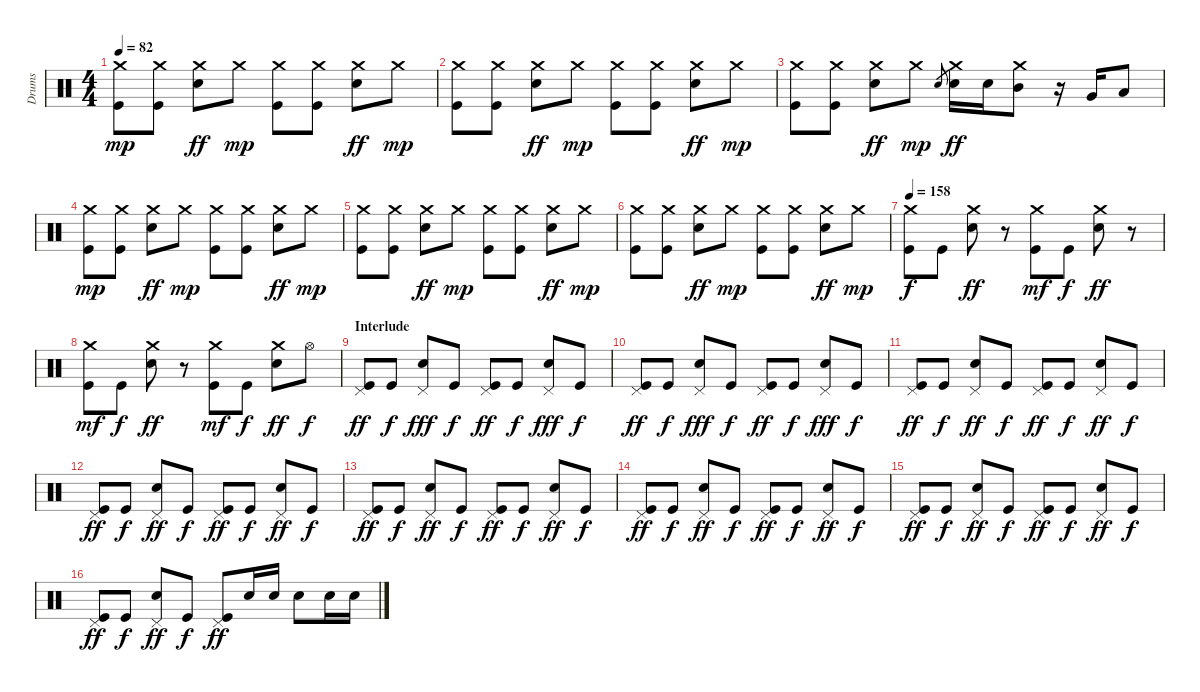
\track ("Drums" "Drums") {instrument percussion}
\staff {score}
\articulation defaults
\ts (4 4)
\tempo 82
\clef neutral
\ks c
("Crash medium (hit)" "Kick (hit)").8{dy mp} ("Crash medium (hit)" "Kick (hit)").8 ("Crash medium (hit)" "Electric Snare (hit)").8{dy ff} "Crash medium (hit)".8{dy mp} ("Crash medium (hit)" "Kick (hit)").8 ("Crash medium (hit)" "Kick (hit)").8 ("Crash medium (hit)" "Electric Snare (hit)").8{dy ff} "Crash medium (hit)".8{dy mp} |
("Crash medium (hit)" "Kick (hit)").8 ("Crash medium (hit)" "Kick (hit)").8 ("Crash medium (hit)" "Electric Snare (hit)").8{dy ff} "Crash medium (hit)".8{dy mp} ("Crash medium (hit)" "Kick (hit)").8 ("Crash medium (hit)" "Kick (hit)").8 ("Crash medium (hit)" "Electric Snare (hit)").8{dy ff} "Crash medium (hit)".8{dy mp} |
("Crash medium (hit)" "Kick (hit)").8 ("Crash medium (hit)" "Kick (hit)").8 ("Crash medium (hit)" "Electric Snare (hit)").8{dy ff} "Crash medium (hit)".8{dy mp} "Electric Snare (hit)".8{gr} ("Crash medium (hit)" "Electric Snare (hit)").16{dy ff} "Electric Snare (hit)".16 ("Crash medium (hit)" "Mid Tom (hit)").8 r.16 "Very Low Tom (hit)".16 "Low Floor Tom (hit)".8 |
("Crash medium (hit)" "Kick (hit)").8{dy mp} ("Crash medium (hit)" "Kick (hit)").8 ("Crash medium (hit)" "Electric Snare (hit)").8{dy ff} "Crash medium (hit)".8{dy mp} ("Crash medium (hit)" "Kick (hit)").8 ("Crash medium (hit)" "Kick (hit)").8 ("Crash medium (hit)" "Electric Snare (hit)").8{dy ff} "Crash medium (hit)".8{dy mp} |
("Crash medium (hit)" "Kick (hit)").8 ("Crash medium (hit)" "Kick (hit)").8 ("Crash medium (hit)" "Electric Snare (hit)").8{dy ff} "Crash medium (hit)".8{dy mp} ("Crash medium (hit)" "Kick (hit)").8 ("Crash medium (hit)" "Kick (hit)").8 ("Crash medium (hit)" "Electric Snare (hit)").8{dy ff} "Crash medium (hit)".8{dy mp} |
("Crash medium (hit)" "Kick (hit)").8 ("Crash medium (hit)" "Kick (hit)").8 ("Crash medium (hit)" "Electric Snare (hit)").8{dy ff} "Crash medium (hit)".8{dy mp} ("Crash medium (hit)" "Kick (hit)").8 ("Crash medium (hit)" "Kick (hit)").8 ("Crash medium (hit)" "Electric Snare (hit)").8{dy ff} "Crash medium (hit)".8{dy mp} |
\tempo 158
("Crash medium (hit)" "Kick (hit)").8{dy f} "Kick (hit)".8 ("Crash medium (hit)" "Electric Snare (hit)").8{dy ff} r.8 ("Crash medium (hit)" "Kick (hit)").8{dy mf} "Kick (hit)".8{dy f} ("Crash medium (hit)" "Electric Snare (hit)").8{dy ff} r.8 |
("Crash medium (hit)" "Kick (hit)").8{dy mf} "Kick (hit)".8{dy f} ("Crash medium (hit)" "Electric Snare (hit)").8{dy ff} r.8 ("Crash medium (hit)" "Kick (hit)").8{dy mf} "Kick (hit)".8{dy f} ("Crash medium (hit)" "Electric Snare (hit)").8{dy ff} "Hi-Hat (open)".8{dy f} |
\section ("" "Interlude")
("Pedal Hi-Hat (hit)" "Kick (hit)").8{dy ff} "Kick (hit)".8{dy f} ("Pedal Hi-Hat (hit)" "Electric Snare (hit)").8{dy fff} "Kick (hit)".8{dy f} ("Pedal Hi-Hat (hit)" "Kick (hit)").8{dy ff} "Kick (hit)".8{dy f} ("Pedal Hi-Hat (hit)" "Electric Snare (hit)").8{dy fff} "Kick (hit)".8{dy f} |
("Pedal Hi-Hat (hit)" "Kick (hit)").8{dy ff} "Kick (hit)".8{dy f} ("Pedal Hi-Hat (hit)" "Electric Snare (hit)").8{dy fff} "Kick (hit)".8{dy f} ("Pedal Hi-Hat (hit)" "Kick (hit)").8{dy ff} "Kick (hit)".8{dy f} ("Pedal Hi-Hat (hit)" "Electric Snare (hit)").8{dy fff} "Kick (hit)".8{dy f} |
("Pedal Hi-Hat (hit)" "Kick (hit)").8{dy ff} "Kick (hit)".8{dy f} ("Pedal Hi-Hat (hit)" "Electric Snare (hit)").8{dy ff} "Kick (hit)".8{dy f} ("Pedal Hi-Hat (hit)" "Kick (hit)").8{dy ff} "Kick (hit)".8{dy f} ("Pedal Hi-Hat (hit)" "Electric Snare (hit)").8{dy ff} "Kick (hit)".8{dy f} |
("Pedal Hi-Hat (hit)" "Kick (hit)").8{dy ff} "Kick (hit)".8{dy f} ("Pedal Hi-Hat (hit)" "Electric Snare (hit)").8{dy ff} "Kick (hit)".8{dy f} ("Pedal Hi-Hat (hit)" "Kick (hit)").8{dy ff} "Kick (hit)".8{dy f} ("Pedal Hi-Hat (hit)" "Electric Snare (hit)").8{dy ff} "Kick (hit)".8{dy f} |
("Pedal Hi-Hat (hit)" "Kick (hit)").8{dy ff} "Kick (hit)".8{dy f} ("Pedal Hi-Hat (hit)" "Electric Snare (hit)").8{dy ff} "Kick (hit)".8{dy f} ("Pedal Hi-Hat (hit)" "Kick (hit)").8{dy ff} "Kick (hit)".8{dy f} ("Pedal Hi-Hat (hit)" "Electric Snare (hit)").8{dy ff} "Kick (hit)".8{dy f} |
("Pedal Hi-Hat (hit)" "Kick (hit)").8{dy ff} "Kick (hit)".8{dy f} ("Pedal Hi-Hat (hit)" "Electric Snare (hit)").8{dy ff} "Kick (hit)".8{dy f} ("Pedal Hi-Hat (hit)" "Kick (hit)").8{dy ff} "Kick (hit)".8{dy f} ("Pedal Hi-Hat (hit)" "Electric Snare (hit)").8{dy ff} "Kick (hit)".8{dy f} |
("Pedal Hi-Hat (hit)" "Kick (hit)").8{dy ff} "Kick (hit)".8{dy f} ("Pedal Hi-Hat (hit)" "Electric Snare (hit)").8{dy ff} "Kick (hit)".8{dy f} ("Pedal Hi-Hat (hit)" "Kick (hit)").8{dy ff} "Kick (hit)".8{dy f} ("Pedal Hi-Hat (hit)" "Electric Snare (hit)").8{dy ff} "Kick (hit)".8{dy f} |
("Pedal Hi-Hat (hit)" "Kick (hit)").8{dy ff} "Kick (hit)".8{dy f} ("Pedal Hi-Hat (hit)" "Electric Snare (hit)").8{dy ff} "Kick (hit)".8{dy f} ("Pedal Hi-Hat (hit)" "Kick (hit)").8{dy ff} "Electric Snare (hit)".16 "Electric Snare (hit)".16 "Electric Snare (hit)".8 "Electric Snare (hit)".16 "Electric Snare (hit)".16
